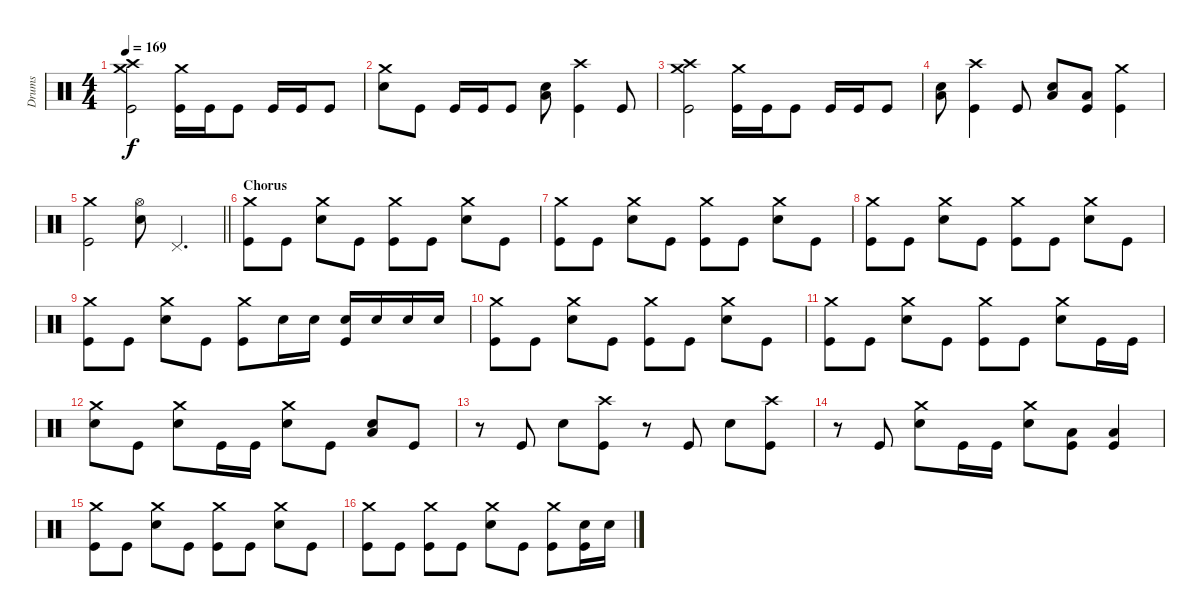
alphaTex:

\track ("Drums" "Drums") {instrument percussion}
\staff {score}
\articulation defaults
\ts (4 4)
\tempo 169
\clef neutral
\ks c
("Crash medium (hit)" "Crash high (hit)" "Kick (hit)").2{dy f} ("Crash medium (hit)" "Kick (hit)").16 "Kick (hit)".16 "Kick (hit)".8 "Kick (hit)".16 "Kick (hit)".16 "Kick (hit)".8 |
("Crash medium (hit)" "Snare (hit) 2").8 "Kick (hit)".8 "Kick (hit)".16 "Kick (hit)".16 "Kick (hit)".8 ("Snare (hit) 2" "Low Tom (hit)").8 ("Crash high (hit)" "Kick (hit)").4 "Kick (hit)".8 |
("Crash medium (hit)" "Crash high (hit)" "Kick (hit)").2 ("Crash medium (hit)" "Kick (hit)").16 "Kick (hit)".16 "Kick (hit)".8 "Kick (hit)".16 "Kick (hit)".16 "Kick (hit)".8 |
("Snare (hit) 2" "Low Tom (hit)").8 ("Crash high (hit)" "Kick (hit)").4 "Kick (hit)".8 ("Snare (hit) 2" "Low Tom (hit)").8 ("Low Tom (hit)" "Kick (hit)").8 ("Crash medium (hit)" "Kick (hit)").4 |
\barLineRight lightlight
("Crash medium (hit)" "Kick (hit)").2 ("Hi-Hat (open)" "Snare (hit) 2").8 "Pedal Hi-Hat (hit)".4{d} |
\section ("" "Chorus")
("Crash medium (hit)" "Kick (hit)").8 "Kick (hit)".8 ("Crash medium (hit)" "Snare (hit) 2").8 "Kick (hit)".8 ("Crash medium (hit)" "Kick (hit)").8 "Kick (hit)".8 ("Crash medium (hit)" "Snare (hit) 2").8 "Kick (hit)".8 |
("Crash medium (hit)" "Kick (hit)").8 "Kick (hit)".8 ("Crash medium (hit)" "Snare (hit) 2").8 "Kick (hit)".8 ("Crash medium (hit)" "Kick (hit)").8 "Kick (hit)".8 ("Crash medium (hit)" "Snare (hit) 2").8 "Kick (hit)".8 |
("Crash medium (hit)" "Kick (hit)").8 "Kick (hit)".8 ("Crash medium (hit)" "Snare (hit) 2").8 "Kick (hit)".8 ("Crash medium (hit)" "Kick (hit)").8 "Kick (hit)".8 ("Crash medium (hit)" "Snare (hit) 2").8 "Kick (hit)".8 |
("Crash medium (hit)" "Kick (hit)").8 "Kick (hit)".8 ("Crash medium (hit)" "Snare (hit) 2").8 "Kick (hit)".8 ("Crash medium (hit)" "Kick (hit)").8 "Snare (hit) 2".16 "Snare (hit) 2".16 ("Snare (hit) 2" "Kick (hit)").16 "Snare (hit) 2".16 "Snare (hit) 2".16 "Snare (hit) 2".16 |
("Crash medium (hit)" "Kick (hit)").8 "Kick (hit)".8 ("Crash medium (hit)" "Snare (hit) 2").8 "Kick (hit)".8 ("Crash medium (hit)" "Kick (hit)").8 "Kick (hit)".8 ("Crash medium (hit)" "Snare (hit) 2").8 "Kick (hit)".8 |
("Crash medium (hit)" "Kick (hit)").8 "Kick (hit)".8 ("Crash medium (hit)" "Snare (hit) 2").8 "Kick (hit)".8 ("Crash medium (hit)" "Kick (hit)").8 "Kick (hit)".8 ("Crash medium (hit)" "Snare (hit) 2").8 "Kick (hit)".16 "Kick (hit)".16 |
("Crash medium (hit)" "Snare (hit) 2").8 "Kick (hit)".8 ("Crash medium (hit)" "Snare (hit) 2").8 "Kick (hit)".16 "Kick (hit)".16 ("Crash medium (hit)" "Snare (hit) 2").8 "Kick (hit)".8 ("Snare (hit) 2" "Low Tom (hit)").8 "Kick (hit)".8 |
r.8 "Kick (hit)".8 "Snare (hit) 2".8 ("Crash high (hit)" "Kick (hit)").8 r.8 "Kick (hit)".8 "Snare (hit) 2".8 ("Crash high (hit)" "Kick (hit)").8 |
r.8 "Kick (hit)".8 ("Crash medium (hit)" "Snare (hit) 2").8 "Kick (hit)".16 "Kick (hit)".16 ("Crash medium (hit)" "Snare (hit) 2").8 ("Low Tom (hit)" "Kick (hit)").8 ("Low Tom (hit)" "Kick (hit)").4 |
("Crash medium (hit)" "Kick (hit)").8 "Kick (hit)".8 ("Crash medium (hit)" "Snare (hit) 2").8 "Kick (hit)".8 ("Crash medium (hit)" "Kick (hit)").8 "Kick (hit)".8 ("Crash medium (hit)" "Snare (hit) 2").8 "Kick (hit)".8 |
("Crash medium (hit)" "Kick (hit)").8 "Kick (hit)".8 ("Crash medium (hit)" "Kick (hit)").8 "Kick (hit)".8 ("Crash medium (hit)" "Snare (hit) 2").8 "Kick (hit)".8 ("Crash medium (hit)" "Kick (hit)").8 ("Snare (hit) 2" "Kick (hit)").16 "Snare (hit) 2".16
